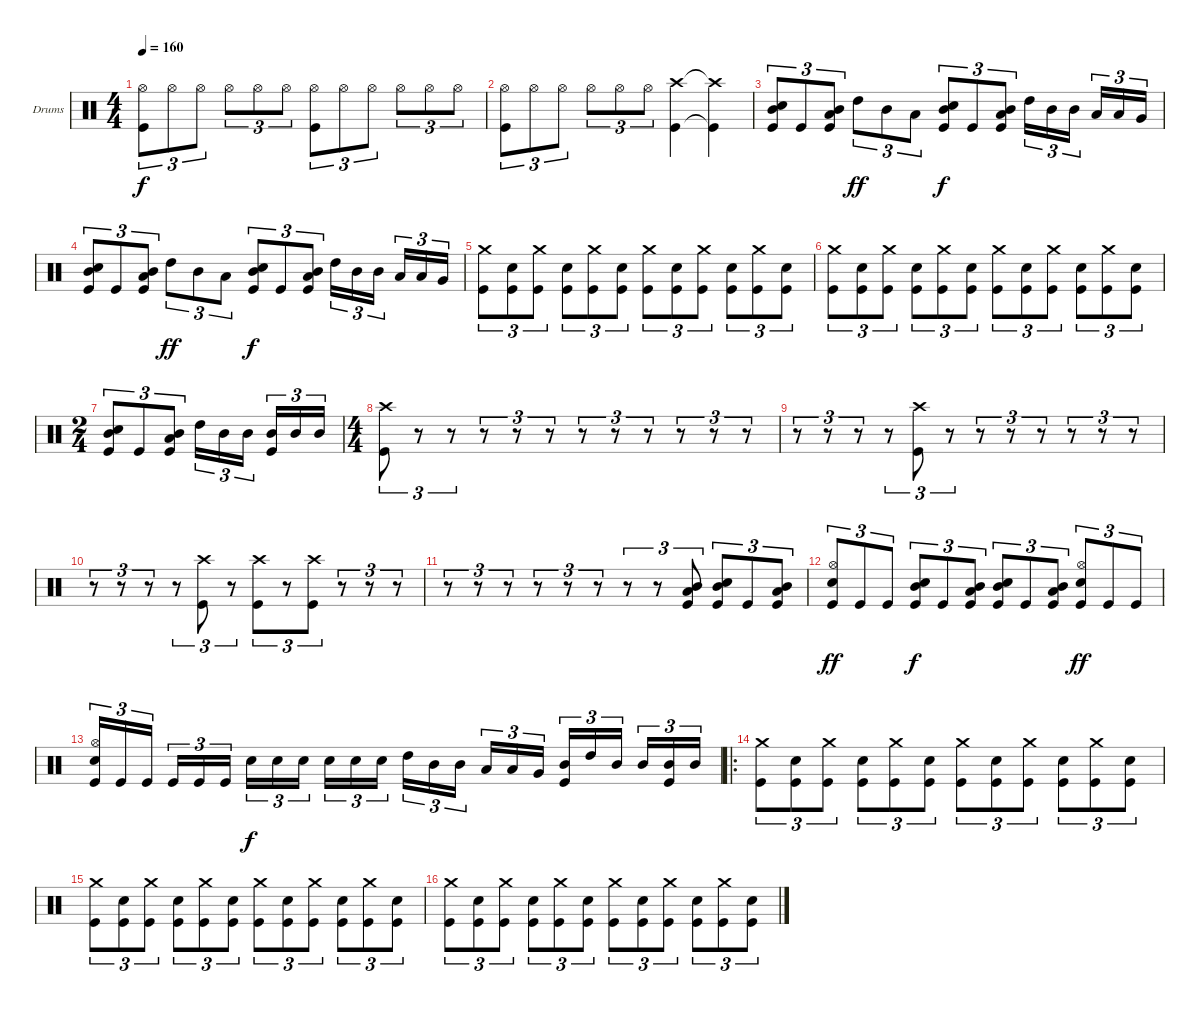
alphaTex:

\defaultSystemsLayout 4
\bracketExtendMode groupsimilarinstruments
\firstSystemTrackNameOrientation horizontal
\otherSystemsTrackNameOrientation horizontal
\track ("Drumkit" "Drums") {instrument percussion}
\staff {score}
\articulation defaults
\ts (4 4)
\tempo 160
\clef neutral
\ks c
("Kick (hit)" "Hi-Hat (open)").8{tu (3 2) dy f} "Hi-Hat (open)".8{tu (3 2)} "Hi-Hat (open)".8{tu (3 2)} "Hi-Hat (open)".8{tu (3 2)} "Hi-Hat (open)".8{tu (3 2)} "Hi-Hat (open)".8{tu (3 2)} ("Kick (hit)" "Hi-Hat (open)").8{tu (3 2)} "Hi-Hat (open)".8{tu (3 2)} "Hi-Hat (open)".8{tu (3 2)} "Hi-Hat (open)".8{tu (3 2)} "Hi-Hat (open)".8{tu (3 2)} "Hi-Hat (open)".8{tu (3 2)} |
("Kick (hit)" "Hi-Hat (open)").8{tu (3 2)} "Hi-Hat (open)".8{tu (3 2)} "Hi-Hat (open)".8{tu (3 2)} "Hi-Hat (open)".8{tu (3 2)} "Hi-Hat (open)".8{tu (3 2)} "Hi-Hat (open)".8{tu (3 2)} ("Crash high (hit)" "Kick (hit)").4 ("Crash high (hit)"{t} "Kick (hit)"{t}).4 |
("Mid Tom (hit)" "Snare (hit) 2" "Kick (hit)").8{tu (3 2)} "Kick (hit)".8{tu (3 2)} ("Mid Tom (hit)" "Low Tom (hit)" "Kick (hit)").8{tu (3 2)} "High Tom (hit)".8{tu (3 2) dy ff} "Mid Tom (hit)".8{tu (3 2)} "Low Tom (hit)".8{tu (3 2)} ("Mid Tom (hit)" "Snare (hit) 2" "Kick (hit)").8{tu (3 2) dy f} "Kick (hit)".8{tu (3 2)} ("Mid Tom (hit)" "Low Tom (hit)" "Kick (hit)").8{tu (3 2)} "High Tom (hit)".16{tu (3 2)} "Mid Tom (hit)".16{tu (3 2)} "Mid Tom (hit)".16{tu (3 2)} "Low Tom (hit)".16{tu (3 2)} "Low Tom (hit)".16{tu (3 2)} "Very Low Tom (hit)".16{tu (3 2)} |
("Mid Tom (hit)" "Snare (hit) 2" "Kick (hit)").8{tu (3 2)} "Kick (hit)".8{tu (3 2)} ("Mid Tom (hit)" "Low Tom (hit)" "Kick (hit)").8{tu (3 2)} "High Tom (hit)".8{tu (3 2) dy ff} "Mid Tom (hit)".8{tu (3 2)} "Low Tom (hit)".8{tu (3 2)} ("Mid Tom (hit)" "Snare (hit) 2" "Kick (hit)").8{tu (3 2) dy f} "Kick (hit)".8{tu (3 2)} ("Mid Tom (hit)" "Low Tom (hit)" "Kick (hit)").8{tu (3 2)} "High Tom (hit)".16{tu (3 2)} "Mid Tom (hit)".16{tu (3 2)} "Mid Tom (hit)".16{tu (3 2)} "Low Tom (hit)".16{tu (3 2)} "Low Tom (hit)".16{tu (3 2)} "Very Low Tom (hit)".16{tu (3 2)} |
("Crash medium (hit)" "Kick (hit)").8{tu (3 2)} ("Kick (hit)" "Snare (hit) 2").8{tu (3 2)} ("Crash medium (hit)" "Kick (hit)").8{tu (3 2)} ("Kick (hit)" "Snare (hit) 2").8{tu (3 2)} ("Crash medium (hit)" "Kick (hit)").8{tu (3 2)} ("Kick (hit)" "Snare (hit) 2").8{tu (3 2)} ("Crash medium (hit)" "Kick (hit)").8{tu (3 2)} ("Kick (hit)" "Snare (hit) 2").8{tu (3 2)} ("Crash medium (hit)" "Kick (hit)").8{tu (3 2)} ("Kick (hit)" "Snare (hit) 2").8{tu (3 2)} ("Crash medium (hit)" "Kick (hit)").8{tu (3 2)} ("Kick (hit)" "Snare (hit) 2").8{tu (3 2)} |
("Crash medium (hit)" "Kick (hit)").8{tu (3 2)} ("Kick (hit)" "Snare (hit) 2").8{tu (3 2)} ("Crash medium (hit)" "Kick (hit)").8{tu (3 2)} ("Kick (hit)" "Snare (hit) 2").8{tu (3 2)} ("Crash medium (hit)" "Kick (hit)").8{tu (3 2)} ("Kick (hit)" "Snare (hit) 2").8{tu (3 2)} ("Crash medium (hit)" "Kick (hit)").8{tu (3 2)} ("Kick (hit)" "Snare (hit) 2").8{tu (3 2)} ("Crash medium (hit)" "Kick (hit)").8{tu (3 2)} ("Kick (hit)" "Snare (hit) 2").8{tu (3 2)} ("Crash medium (hit)" "Kick (hit)").8{tu (3 2)} ("Kick (hit)" "Snare (hit) 2").8{tu (3 2)} |
\ts (2 4)
("Mid Tom (hit)" "Snare (hit) 2" "Kick (hit)").8{tu (3 2)} "Kick (hit)".8{tu (3 2)} ("Mid Tom (hit)" "Low Tom (hit)" "Kick (hit)").8{tu (3 2)} "High Tom (hit)".16{tu (3 2)} "Mid Tom (hit)".16{tu (3 2)} "Mid Tom (hit)".16{tu (3 2)} ("Mid Tom (hit)" "Kick (hit)").16{tu (3 2)} "Mid Tom (hit)".16{tu (3 2)} "Mid Tom (hit)".16{tu (3 2)} |
\ts (4 4)
("Kick (hit)" "Crash high (hit)").8{tu (3 2)} r.8{tu (3 2)} r.8{tu (3 2)} r.8{tu (3 2)} r.8{tu (3 2)} r.8{tu (3 2)} r.8{tu (3 2)} r.8{tu (3 2)} r.8{tu (3 2)} r.8{tu (3 2)} r.8{tu (3 2)} r.8{tu (3 2)} |
r.8{tu (3 2)} r.8{tu (3 2)} r.8{tu (3 2)} r.8{tu (3 2)} ("Kick (hit)" "Crash high (hit)").8{tu (3 2)} r.8{tu (3 2)} r.8{tu (3 2)} r.8{tu (3 2)} r.8{tu (3 2)} r.8{tu (3 2)} r.8{tu (3 2)} r.8{tu (3 2)} |
r.8{tu (3 2)} r.8{tu (3 2)} r.8{tu (3 2)} r.8{tu (3 2)} ("Kick (hit)" "Crash high (hit)").8{tu (3 2)} r.8{tu (3 2)} ("Kick (hit)" "Crash high (hit)").8{tu (3 2)} r.8{tu (3 2)} ("Kick (hit)" "Crash high (hit)").8{tu (3 2)} r.8{tu (3 2)} r.8{tu (3 2)} r.8{tu (3 2)} |
r.8{tu (3 2)} r.8{tu (3 2)} r.8{tu (3 2)} r.8{tu (3 2)} r.8{tu (3 2)} r.8{tu (3 2)} r.8{tu (3 2)} r.8{tu (3 2)} ("Mid Tom (hit)" "Low Tom (hit)" "Kick (hit)").8{tu (3 2)} ("Mid Tom (hit)" "Snare (hit) 2" "Kick (hit)").8{tu (3 2)} "Kick (hit)".8{tu (3 2)} ("Mid Tom (hit)" "Low Tom (hit)" "Kick (hit)").8{tu (3 2)} |
("Hi-Hat (open)" "Snare (hit) 2" "Kick (hit)").8{tu (3 2) dy ff} "Kick (hit)".8{tu (3 2)} "Kick (hit)".8{tu (3 2)} ("Mid Tom (hit)" "Snare (hit) 2" "Kick (hit)").8{tu (3 2) dy f} "Kick (hit)".8{tu (3 2)} ("Mid Tom (hit)" "Low Tom (hit)" "Kick (hit)").8{tu (3 2)} ("Mid Tom (hit)" "Snare (hit) 2" "Kick (hit)").8{tu (3 2)} "Kick (hit)".8{tu (3 2)} ("Mid Tom (hit)" "Low Tom (hit)" "Kick (hit)").8{tu (3 2)} ("Hi-Hat (open)" "Snare (hit) 2" "Kick (hit)").8{tu (3 2) dy ff} "Kick (hit)".8{tu (3 2)} "Kick (hit)".8{tu (3 2)} |
("Hi-Hat (open)" "Snare (hit) 2" "Kick (hit)").16{tu (3 2)} "Kick (hit)".16{tu (3 2)} "Kick (hit)".16{tu (3 2)} "Kick (hit)".16{tu (3 2)} "Kick (hit)".16{tu (3 2)} "Kick (hit)".16{tu (3 2)} "Snare (hit) 2".16{tu (3 2) dy f} "Snare (hit) 2".16{tu (3 2)} "Snare (hit) 2".16{tu (3 2)} "Snare (hit) 2".16{tu (3 2)} "Snare (hit) 2".16{tu (3 2)} "Snare (hit) 2".16{tu (3 2)} "High Tom (hit)".16{tu (3 2)} "Mid Tom (hit)".16{tu (3 2)} "Mid Tom (hit)".16{tu (3 2)} "Low Tom (hit)".16{tu (3 2)} "Low Tom (hit)".16{tu (3 2)} "Very Low Tom (hit)".16{tu (3 2)} ("Mid Tom (hit)" "Kick (hit)").16{tu (3 2)} "High Tom (hit)".16{tu (3 2)} "Mid Tom (hit)".16{tu (3 2)} "Mid Tom (hit)".16{tu (3 2)} ("Mid Tom (hit)" "Kick (hit)").16{tu (3 2)} "Mid Tom (hit)".16{tu (3 2)} |
\ro
("Crash medium (hit)" "Kick (hit)").8{tu (3 2)} ("Kick (hit)" "Snare (hit) 2").8{tu (3 2)} ("Crash medium (hit)" "Kick (hit)").8{tu (3 2)} ("Kick (hit)" "Snare (hit) 2").8{tu (3 2)} ("Crash medium (hit)" "Kick (hit)").8{tu (3 2)} ("Kick (hit)" "Snare (hit) 2").8{tu (3 2)} ("Crash medium (hit)" "Kick (hit)").8{tu (3 2)} ("Kick (hit)" "Snare (hit) 2").8{tu (3 2)} ("Crash medium (hit)" "Kick (hit)").8{tu (3 2)} ("Kick (hit)" "Snare (hit) 2").8{tu (3 2)} ("Crash medium (hit)" "Kick (hit)").8{tu (3 2)} ("Kick (hit)" "Snare (hit) 2").8{tu (3 2)} |
("Crash medium (hit)" "Kick (hit)").8{tu (3 2)} ("Kick (hit)" "Snare (hit) 2").8{tu (3 2)} ("Crash medium (hit)" "Kick (hit)").8{tu (3 2)} ("Kick (hit)" "Snare (hit) 2").8{tu (3 2)} ("Crash medium (hit)" "Kick (hit)").8{tu (3 2)} ("Kick (hit)" "Snare (hit) 2").8{tu (3 2)} ("Crash medium (hit)" "Kick (hit)").8{tu (3 2)} ("Kick (hit)" "Snare (hit) 2").8{tu (3 2)} ("Crash medium (hit)" "Kick (hit)").8{tu (3 2)} ("Kick (hit)" "Snare (hit) 2").8{tu (3 2)} ("Crash medium (hit)" "Kick (hit)").8{tu (3 2)} ("Kick (hit)" "Snare (hit) 2").8{tu (3 2)} |
("Crash medium (hit)" "Kick (hit)").8{tu (3 2)} ("Kick (hit)" "Snare (hit) 2").8{tu (3 2)} ("Crash medium (hit)" "Kick (hit)").8{tu (3 2)} ("Kick (hit)" "Snare (hit) 2").8{tu (3 2)} ("Crash medium (hit)" "Kick (hit)").8{tu (3 2)} ("Kick (hit)" "Snare (hit) 2").8{tu (3 2)} ("Crash medium (hit)" "Kick (hit)").8{tu (3 2)} ("Kick (hit)" "Snare (hit) 2").8{tu (3 2)} ("Crash medium (hit)" "Kick (hit)").8{tu (3 2)} ("Kick (hit)" "Snare (hit) 2").8{tu (3 2)} ("Crash medium (hit)" "Kick (hit)").8{tu (3 2)} ("Kick (hit)" "Snare (hit) 2").8{tu (3 2)}
